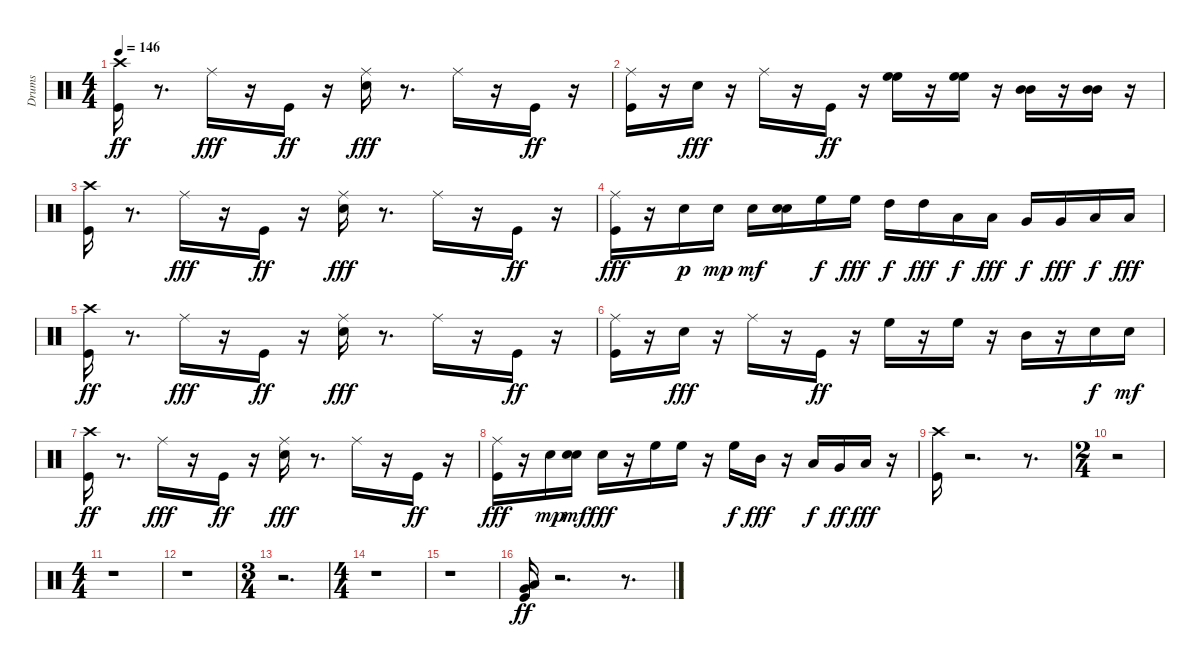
\track ("Drums" "Drums") {instrument percussion}
\staff {score}
\articulation defaults
\ts (4 4)
\tempo 146
\clef neutral
\ks c
("Crash high (hit)" "Kick (hit)").16{dy ff} r.8{d} "Ride (middle)".16{dy fff} r.16 "Kick (hit)".16{dy ff} r.16 ("Ride (middle)" "Snare (hit) 2").16{dy fff} r.8{d} "Ride (middle)".16 r.16 "Kick (hit)".16{dy ff} r.16 |
("Ride (middle)" "Kick (hit)").16 r.16 "Snare (hit) 2".16{dy fff} r.16 "Ride (middle)".16 r.16 "Kick (hit)".16{dy ff} r.16 ("High Floor Tom (hit)" "High Floor Tom (hit)").16 r.16 ("High Floor Tom (hit)" "High Floor Tom (hit)").16 r.16 ("Mid Tom (hit)" "Mid Tom (hit)").16 r.16 ("Mid Tom (hit)" "Mid Tom (hit)").16 r.16 |
("Crash high (hit)" "Kick (hit)").16 r.8{d} "Ride (middle)".16{dy fff} r.16 "Kick (hit)".16{dy ff} r.16 ("Ride (middle)" "Snare (hit) 2").16{dy fff} r.8{d} "Ride (middle)".16 r.16 "Kick (hit)".16{dy ff} r.16 |
("Kick (hit)" "Ride (middle)").16{dy fff} r.16 "Snare (hit) 2".16{dy p} "Snare (hit) 2".16{dy mp} "Snare (hit) 2".16{dy mf} ("Snare (hit) 2" "Snare (hit) 2").16 "High Floor Tom (hit)".16{dy f} "High Floor Tom (hit)".16{dy fff} "High Tom (hit)".16{dy f} "High Tom (hit)".16{dy fff} "Low Tom (hit)".16{dy f} "Low Tom (hit)".16{dy fff} "Very Low Tom (hit)".16{dy f} "Very Low Tom (hit)".16{dy fff} "Low Floor Tom (hit)".16{dy f} "Low Floor Tom (hit)".16{dy fff} |
("Crash high (hit)" "Kick (hit)").16{dy ff} r.8{d} "Ride (middle)".16{dy fff} r.16 "Kick (hit)".16{dy ff} r.16 ("Ride (middle)" "Snare (hit) 2").16{dy fff} r.8{d} "Ride (middle)".16 r.16 "Kick (hit)".16{dy ff} r.16 |
("Ride (middle)" "Kick (hit)").16 r.16 "Snare (hit) 2".16{dy fff} r.16 "Ride (middle)".16 r.16 "Kick (hit)".16{dy ff} r.16 "High Floor Tom (hit)".16 r.16 "High Floor Tom (hit)".16 r.16 "Mid Tom (hit)".16 r.16 "Snare (hit) 2".16{dy f} "Snare (hit) 2".16{dy mf} |
("Crash high (hit)" "Kick (hit)").16{dy ff} r.8{d} "Ride (middle)".16{dy fff} r.16 "Kick (hit)".16{dy ff} r.16 ("Ride (middle)" "Snare (hit) 2").16{dy fff} r.8{d} "Ride (middle)".16 r.16 "Kick (hit)".16{dy ff} r.16 |
("Kick (hit)" "Ride (middle)").16{dy fff} r.16 "Snare (hit) 2".16{dy mp} ("Snare (hit) 2" "Snare (hit) 2").16{dy mf} "Snare (hit) 2".16{dy fff} r.16 "High Floor Tom (hit)".16 "High Floor Tom (hit)".16 r.16 "High Floor Tom (hit)".16{dy f} "Mid Tom (hit)".16{dy fff} r.16 "Low Tom (hit)".16{dy f} "Very Low Tom (hit)".16{dy ff} "Low Floor Tom (hit)".16{dy fff} r.16 |
("Kick (hit)" "Crash high (hit)").16 r.2{d} r.8{d} |
\ts (2 4)
r.2 |
\ts (4 4)
r.1 |
r.1 |
\ts (3 4)
r.2{d} |
\ts (4 4)
r.1 |
r.1 |
("Very Low Tom (hit)" "Low Floor Tom (hit)" "Kick (hit)").16{dy ff} r.2{d} r.8{d}
